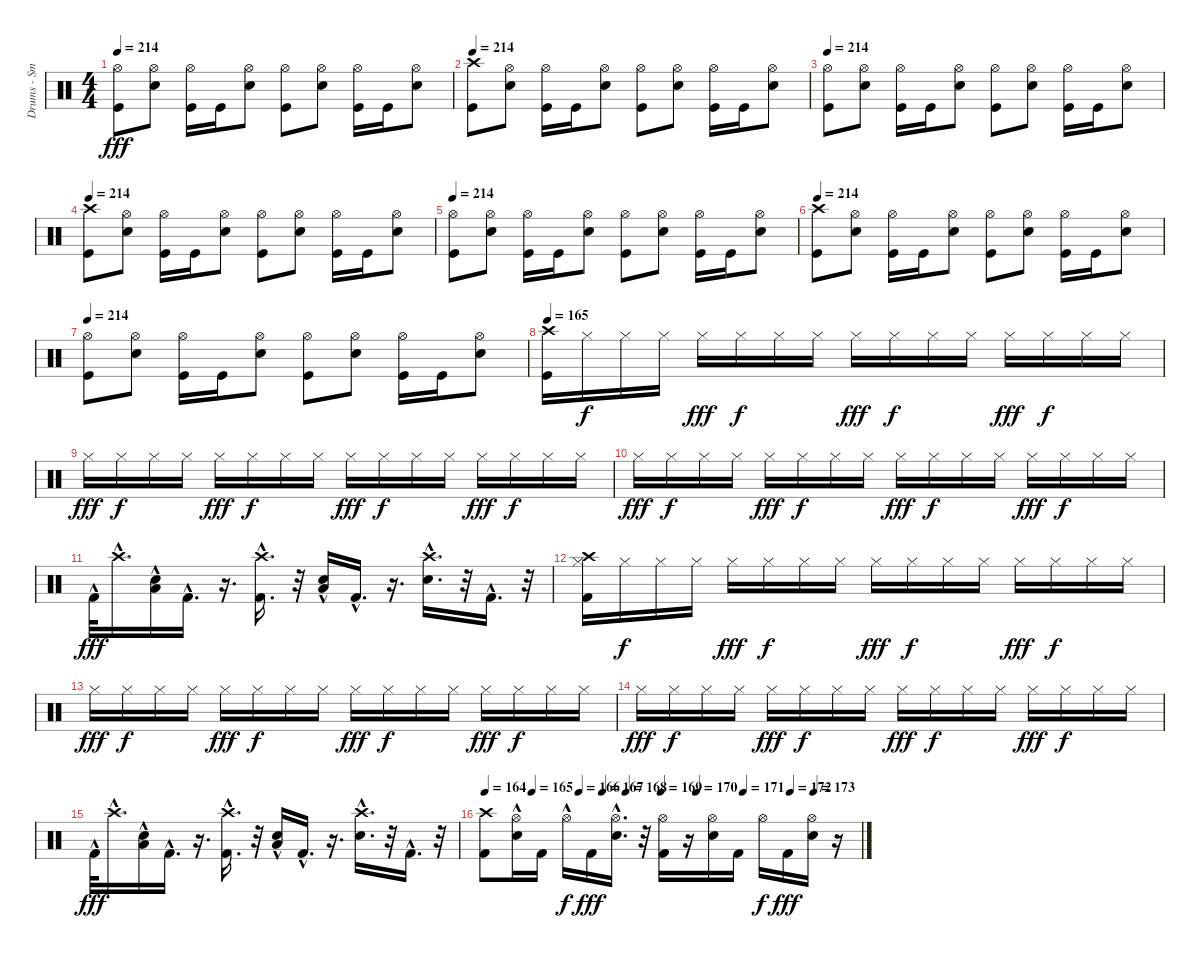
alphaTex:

\track ("Drums - Smelly" "Drums - Sm") {instrument percussion}
\staff {score}
\articulation defaults
\ts (4 4)
\tempo 214
\clef neutral
\ks c
("Hi-Hat (open)" "Kick (hit)").8{dy fff} ("Electric Snare (hit)" "Hi-Hat (open)").8 ("Hi-Hat (open)" "Kick (hit)").16 "Kick (hit)".16 ("Electric Snare (hit)" "Hi-Hat (open)").8 ("Kick (hit)" "Hi-Hat (open)").8 ("Hi-Hat (open)" "Electric Snare (hit)").8 ("Hi-Hat (open)" "Kick (hit)").16 "Kick (hit)".16 ("Hi-Hat (open)" "Electric Snare (hit)").8 |
\tempo 214
("Kick (hit)" "Crash high (hit)").8 ("Hi-Hat (open)" "Electric Snare (hit)").8 ("Hi-Hat (open)" "Kick (hit)").16 "Kick (hit)".16 ("Hi-Hat (open)" "Electric Snare (hit)").8 ("Kick (hit)" "Hi-Hat (open)").8 ("Hi-Hat (open)" "Electric Snare (hit)").8 ("Hi-Hat (open)" "Kick (hit)").16 "Kick (hit)".16 ("Hi-Hat (open)" "Electric Snare (hit)").8 |
\tempo 214
("Kick (hit)" "Hi-Hat (open)").8 ("Hi-Hat (open)" "Electric Snare (hit)").8 ("Hi-Hat (open)" "Kick (hit)").16 "Kick (hit)".16 ("Hi-Hat (open)" "Electric Snare (hit)").8 ("Kick (hit)" "Hi-Hat (open)").8 ("Hi-Hat (open)" "Electric Snare (hit)").8 ("Hi-Hat (open)" "Kick (hit)").16 "Kick (hit)".16 ("Hi-Hat (open)" "Electric Snare (hit)").8 |
\tempo 214
("Kick (hit)" "Crash high (hit)").8 ("Hi-Hat (open)" "Electric Snare (hit)").8 ("Hi-Hat (open)" "Kick (hit)").16 "Kick (hit)".16 ("Electric Snare (hit)" "Hi-Hat (open)").8 ("Hi-Hat (open)" "Kick (hit)").8 ("Hi-Hat (open)" "Electric Snare (hit)").8 ("Kick (hit)" "Hi-Hat (open)").16 "Kick (hit)".16 ("Electric Snare (hit)" "Hi-Hat (open)").8 |
\tempo 214
("Hi-Hat (open)" "Kick (hit)").8 ("Hi-Hat (open)" "Electric Snare (hit)").8 ("Kick (hit)" "Hi-Hat (open)").16 "Kick (hit)".16 ("Electric Snare (hit)" "Hi-Hat (open)").8 ("Hi-Hat (open)" "Kick (hit)").8 ("Hi-Hat (open)" "Electric Snare (hit)").8 ("Kick (hit)" "Hi-Hat (open)").16 "Kick (hit)".16 ("Hi-Hat (open)" "Electric Snare (hit)").8 |
\tempo 214
("Crash high (hit)" "Kick (hit)").8 ("Electric Snare (hit)" "Hi-Hat (open)").8 ("Hi-Hat (open)" "Kick (hit)").16 "Kick (hit)".16 ("Hi-Hat (open)" "Electric Snare (hit)").8 ("Hi-Hat (open)" "Kick (hit)").8 ("Electric Snare (hit)" "Hi-Hat (open)").8 ("Hi-Hat (open)" "Kick (hit)").16 "Kick (hit)".16 ("Hi-Hat (open)" "Electric Snare (hit)").8 |
\tempo 214
("Hi-Hat (open)" "Kick (hit)").8 ("Electric Snare (hit)" "Hi-Hat (open)").8 ("Hi-Hat (open)" "Kick (hit)").16 "Kick (hit)".16 ("Hi-Hat (open)" "Electric Snare (hit)").8 ("Kick (hit)" "Hi-Hat (open)").8 ("Hi-Hat (open)" "Electric Snare (hit)").8 ("Hi-Hat (open)" "Kick (hit)").16 "Kick (hit)".16 ("Hi-Hat (open)" "Electric Snare (hit)").8 |
\tempo 165
("Crash high (hit)" "Kick (hit)").16 "Hi-Hat (closed)".16{dy f} "Hi-Hat (closed)".16 "Hi-Hat (closed)".16 "Hi-Hat (closed)".16{dy fff} "Hi-Hat (closed)".16{dy f} "Hi-Hat (closed)".16 "Hi-Hat (closed)".16 "Hi-Hat (closed)".16{dy fff} "Hi-Hat (closed)".16{dy f} "Hi-Hat (closed)".16 "Hi-Hat (closed)".16 "Hi-Hat (closed)".16{dy fff} "Hi-Hat (closed)".16{dy f} "Hi-Hat (closed)".16 "Hi-Hat (closed)".16 |
"Hi-Hat (closed)".16{dy fff} "Hi-Hat (closed)".16{dy f} "Hi-Hat (closed)".16 "Hi-Hat (closed)".16 "Hi-Hat (closed)".16{dy fff} "Hi-Hat (closed)".16{dy f} "Hi-Hat (closed)".16 "Hi-Hat (closed)".16 "Hi-Hat (closed)".16{dy fff} "Hi-Hat (closed)".16{dy f} "Hi-Hat (closed)".16 "Hi-Hat (closed)".16 "Hi-Hat (closed)".16{dy fff} "Hi-Hat (closed)".16{dy f} "Hi-Hat (closed)".16 "Hi-Hat (closed)".16 |
"Hi-Hat (closed)".16{dy fff} "Hi-Hat (closed)".16{dy f} "Hi-Hat (closed)".16 "Hi-Hat (closed)".16 "Hi-Hat (closed)".16{dy fff} "Hi-Hat (closed)".16{dy f} "Hi-Hat (closed)".16 "Hi-Hat (closed)".16 "Hi-Hat (closed)".16{dy fff} "Hi-Hat (closed)".16{dy f} "Hi-Hat (closed)".16 "Hi-Hat (closed)".16 "Hi-Hat (closed)".16{dy fff} "Hi-Hat (closed)".16{dy f} "Hi-Hat (closed)".16 "Hi-Hat (closed)".16 |
"Kick (hit) 2"{hac}.32{dy fff} "Crash high (hit)"{hac}.16{d} ("Low Tom (hit)" "Electric Snare (hit)"{hac}).16 "Kick (hit) 2"{hac}.16{d} r.16{d} ("Kick (hit) 2"{hac} "Crash high (hit)"{hac}).16{d} r.32 ("Electric Snare (hit)"{hac} "Low Tom (hit)").16 "Kick (hit) 2"{hac}.16{d} r.16{d} ("Crash high (hit)"{hac} "Electric Snare (hit)"{hac}).16{d} r.32 "Kick (hit) 2"{hac}.16{d} r.32 |
("Hi-Hat (closed)" "Kick (hit) 2" "Crash high (hit)").16 "Hi-Hat (closed)".16{dy f} "Hi-Hat (closed)".16 "Hi-Hat (closed)".16 "Hi-Hat (closed)".16{dy fff} "Hi-Hat (closed)".16{dy f} "Hi-Hat (closed)".16 "Hi-Hat (closed)".16 "Hi-Hat (closed)".16{dy fff} "Hi-Hat (closed)".16{dy f} "Hi-Hat (closed)".16 "Hi-Hat (closed)".16 "Hi-Hat (closed)".16{dy fff} "Hi-Hat (closed)".16{dy f} "Hi-Hat (closed)".16 "Hi-Hat (closed)".16 |
"Hi-Hat (closed)".16{dy fff} "Hi-Hat (closed)".16{dy f} "Hi-Hat (closed)".16 "Hi-Hat (closed)".16 "Hi-Hat (closed)".16{dy fff} "Hi-Hat (closed)".16{dy f} "Hi-Hat (closed)".16 "Hi-Hat (closed)".16 "Hi-Hat (closed)".16{dy fff} "Hi-Hat (closed)".16{dy f} "Hi-Hat (closed)".16 "Hi-Hat (closed)".16 "Hi-Hat (closed)".16{dy fff} "Hi-Hat (closed)".16{dy f} "Hi-Hat (closed)".16 "Hi-Hat (closed)".16 |
"Hi-Hat (closed)".16{dy fff} "Hi-Hat (closed)".16{dy f} "Hi-Hat (closed)".16 "Hi-Hat (closed)".16 "Hi-Hat (closed)".16{dy fff} "Hi-Hat (closed)".16{dy f} "Hi-Hat (closed)".16 "Hi-Hat (closed)".16 "Hi-Hat (closed)".16{dy fff} "Hi-Hat (closed)".16{dy f} "Hi-Hat (closed)".16 "Hi-Hat (closed)".16 "Hi-Hat (closed)".16{dy fff} "Hi-Hat (closed)".16{dy f} "Hi-Hat (closed)".16 "Hi-Hat (closed)".16 |
"Kick (hit) 2"{hac}.32{dy fff} "Crash high (hit)"{hac}.16{d} ("Low Tom (hit)" "Electric Snare (hit)"{hac}).16 "Kick (hit) 2"{hac}.16{d} r.16{d} ("Kick (hit) 2"{hac} "Crash high (hit)"{hac}).16{d} r.32 ("Electric Snare (hit)"{hac} "Low Tom (hit)").16 "Kick (hit) 2"{hac}.16{d} r.16{d} ("Crash high (hit)"{hac} "Electric Snare (hit)"{hac}).16{d} r.32 "Kick (hit) 2"{hac}.16{d} r.32 |
\tempo 164
\tempo (165 0.125)
\tempo (166 0.25)
\tempo (167 0.3125)
\tempo (168 0.375)
\tempo (169 0.46875)
\tempo (170 0.5625)
\tempo (171 0.6875)
\tempo (172 0.8125)
\tempo (173 0.875)
("Crash high (hit)" "Kick (hit) 2").8 ("Electric Snare (hit)" "Hi-Hat (open)"{hac}).16 "Kick (hit) 2".16 "Hi-Hat (open)"{hac}.16{dy f} "Kick (hit) 2".16{dy fff} ("Hi-Hat (open)"{hac} "Electric Snare (hit)").16{d} r.32 ("Kick (hit) 2" "Hi-Hat (open)").16 r.16 ("Hi-Hat (open)" "Electric Snare (hit)").16 "Kick (hit) 2".16 "Hi-Hat (open)".16{dy f} "Kick (hit) 2".16{dy fff} ("Electric Snare (hit)" "Hi-Hat (open)").16 r.16
